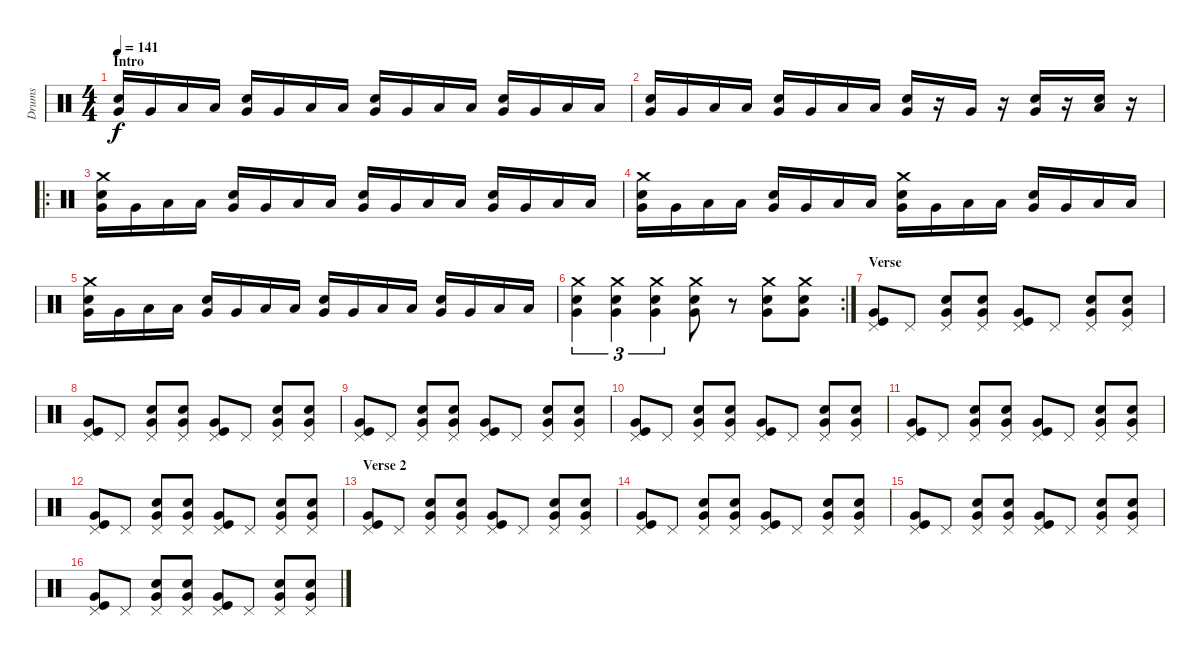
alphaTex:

\track ("Drums" "Drums") {instrument percussion}
\staff {score}
\articulation defaults
\ts (4 4)
\section ("" "Intro")
\tempo 141
\clef neutral
\ks c
("Snare (hit) 2" "Very Low Tom (hit)").16{dy f} "Very Low Tom (hit)".16 "Low Floor Tom (hit)".16 "Low Floor Tom (hit)".16 ("Snare (hit) 2" "Very Low Tom (hit)").16 "Very Low Tom (hit)".16 "Low Floor Tom (hit)".16 "Low Floor Tom (hit)".16 ("Snare (hit) 2" "Very Low Tom (hit)").16 "Very Low Tom (hit)".16 "Low Floor Tom (hit)".16 "Low Floor Tom (hit)".16 ("Snare (hit) 2" "Very Low Tom (hit)").16 "Very Low Tom (hit)".16 "Low Floor Tom (hit)".16 "Low Floor Tom (hit)".16 |
("Snare (hit) 2" "Very Low Tom (hit)").16 "Very Low Tom (hit)".16 "Low Floor Tom (hit)".16 "Low Floor Tom (hit)".16 ("Snare (hit) 2" "Very Low Tom (hit)").16 "Very Low Tom (hit)".16 "Low Floor Tom (hit)".16 "Low Floor Tom (hit)".16 ("Snare (hit) 2" "Very Low Tom (hit)").16 r.16 "Very Low Tom (hit)".16 r.16 ("Snare (hit) 2" "Very Low Tom (hit)").16 r.16 ("Snare (hit) 2" "Low Floor Tom (hit)").16 r.16 |
\ro
("Crash medium (hit)" "Snare (hit) 2" "Very Low Tom (hit)").16 "Very Low Tom (hit)".16 "Low Floor Tom (hit)".16 "Low Floor Tom (hit)".16 ("Snare (hit) 2" "Very Low Tom (hit)").16 "Very Low Tom (hit)".16 "Low Floor Tom (hit)".16 "Low Floor Tom (hit)".16 ("Snare (hit) 2" "Very Low Tom (hit)").16 "Very Low Tom (hit)".16 "Low Floor Tom (hit)".16 "Low Floor Tom (hit)".16 ("Snare (hit) 2" "Very Low Tom (hit)").16 "Very Low Tom (hit)".16 "Low Floor Tom (hit)".16 "Low Floor Tom (hit)".16 |
("Crash medium (hit)" "Snare (hit) 2" "Very Low Tom (hit)").16 "Very Low Tom (hit)".16 "Low Floor Tom (hit)".16 "Low Floor Tom (hit)".16 ("Snare (hit) 2" "Very Low Tom (hit)").16 "Very Low Tom (hit)".16 "Low Floor Tom (hit)".16 "Low Floor Tom (hit)".16 ("Crash medium (hit)" "Snare (hit) 2" "Very Low Tom (hit)").16 "Very Low Tom (hit)".16 "Low Floor Tom (hit)".16 "Low Floor Tom (hit)".16 ("Snare (hit) 2" "Very Low Tom (hit)").16 "Very Low Tom (hit)".16 "Low Floor Tom (hit)".16 "Low Floor Tom (hit)".16 |
("Crash medium (hit)" "Snare (hit) 2" "Very Low Tom (hit)").16 "Very Low Tom (hit)".16 "Low Floor Tom (hit)".16 "Low Floor Tom (hit)".16 ("Snare (hit) 2" "Very Low Tom (hit)").16 "Very Low Tom (hit)".16 "Low Floor Tom (hit)".16 "Low Floor Tom (hit)".16 ("Snare (hit) 2" "Very Low Tom (hit)").16 "Very Low Tom (hit)".16 "Low Floor Tom (hit)".16 "Low Floor Tom (hit)".16 ("Snare (hit) 2" "Very Low Tom (hit)").16 "Very Low Tom (hit)".16 "Low Floor Tom (hit)".16 "Low Floor Tom (hit)".16 |
\rc 2
("Crash medium (hit)" "Snare (hit) 2" "Very Low Tom (hit)").4{tu (3 2)} ("Crash medium (hit)" "Snare (hit) 2" "Very Low Tom (hit)").4{tu (3 2)} ("Crash medium (hit)" "Snare (hit) 2" "Very Low Tom (hit)").4{tu (3 2)} ("Crash medium (hit)" "Snare (hit) 2" "Very Low Tom (hit)").8 r.8 ("Crash medium (hit)" "Snare (hit) 2" "Very Low Tom (hit)").8 ("Crash medium (hit)" "Snare (hit) 2" "Very Low Tom (hit)").8 |
\section ("" "Verse")
("Pedal Hi-Hat (hit)" "Very Low Tom (hit)" "Kick (hit)").8 "Pedal Hi-Hat (hit)".8 ("Pedal Hi-Hat (hit)" "Very Low Tom (hit)" "Snare (hit) 2").8 ("Pedal Hi-Hat (hit)" "Very Low Tom (hit)" "Snare (hit) 2").8 ("Pedal Hi-Hat (hit)" "Very Low Tom (hit)" "Kick (hit)").8 "Pedal Hi-Hat (hit)".8 ("Pedal Hi-Hat (hit)" "Very Low Tom (hit)" "Snare (hit) 2").8 ("Pedal Hi-Hat (hit)" "Very Low Tom (hit)" "Snare (hit) 2").8 |
("Pedal Hi-Hat (hit)" "Very Low Tom (hit)" "Kick (hit)").8 "Pedal Hi-Hat (hit)".8 ("Pedal Hi-Hat (hit)" "Very Low Tom (hit)" "Snare (hit) 2").8 ("Pedal Hi-Hat (hit)" "Very Low Tom (hit)" "Snare (hit) 2").8 ("Pedal Hi-Hat (hit)" "Very Low Tom (hit)" "Kick (hit)").8 "Pedal Hi-Hat (hit)".8 ("Pedal Hi-Hat (hit)" "Very Low Tom (hit)" "Snare (hit) 2").8 ("Pedal Hi-Hat (hit)" "Very Low Tom (hit)" "Snare (hit) 2").8 |
("Pedal Hi-Hat (hit)" "Very Low Tom (hit)" "Kick (hit)").8 "Pedal Hi-Hat (hit)".8 ("Pedal Hi-Hat (hit)" "Very Low Tom (hit)" "Snare (hit) 2").8 ("Pedal Hi-Hat (hit)" "Very Low Tom (hit)" "Snare (hit) 2").8 ("Pedal Hi-Hat (hit)" "Very Low Tom (hit)" "Kick (hit)").8 "Pedal Hi-Hat (hit)".8 ("Pedal Hi-Hat (hit)" "Very Low Tom (hit)" "Snare (hit) 2").8 ("Pedal Hi-Hat (hit)" "Very Low Tom (hit)" "Snare (hit) 2").8 |
("Pedal Hi-Hat (hit)" "Very Low Tom (hit)" "Kick (hit)").8 "Pedal Hi-Hat (hit)".8 ("Pedal Hi-Hat (hit)" "Very Low Tom (hit)" "Snare (hit) 2").8 ("Pedal Hi-Hat (hit)" "Very Low Tom (hit)" "Snare (hit) 2").8 ("Pedal Hi-Hat (hit)" "Very Low Tom (hit)" "Kick (hit)").8 "Pedal Hi-Hat (hit)".8 ("Pedal Hi-Hat (hit)" "Very Low Tom (hit)" "Snare (hit) 2").8 ("Pedal Hi-Hat (hit)" "Very Low Tom (hit)" "Snare (hit) 2").8 |
("Pedal Hi-Hat (hit)" "Very Low Tom (hit)" "Kick (hit)").8 "Pedal Hi-Hat (hit)".8 ("Pedal Hi-Hat (hit)" "Very Low Tom (hit)" "Snare (hit) 2").8 ("Pedal Hi-Hat (hit)" "Very Low Tom (hit)" "Snare (hit) 2").8 ("Pedal Hi-Hat (hit)" "Very Low Tom (hit)" "Kick (hit)").8 "Pedal Hi-Hat (hit)".8 ("Pedal Hi-Hat (hit)" "Very Low Tom (hit)" "Snare (hit) 2").8 ("Pedal Hi-Hat (hit)" "Very Low Tom (hit)" "Snare (hit) 2").8 |
("Pedal Hi-Hat (hit)" "Very Low Tom (hit)" "Kick (hit)").8 "Pedal Hi-Hat (hit)".8 ("Pedal Hi-Hat (hit)" "Very Low Tom (hit)" "Snare (hit) 2").8 ("Pedal Hi-Hat (hit)" "Very Low Tom (hit)" "Snare (hit) 2").8 ("Pedal Hi-Hat (hit)" "Very Low Tom (hit)" "Kick (hit)").8 "Pedal Hi-Hat (hit)".8 ("Pedal Hi-Hat (hit)" "Very Low Tom (hit)" "Snare (hit) 2").8 ("Pedal Hi-Hat (hit)" "Very Low Tom (hit)" "Snare (hit) 2").8 |
\section ("" "Verse 2")
("Pedal Hi-Hat (hit)" "Very Low Tom (hit)" "Kick (hit)").8 "Pedal Hi-Hat (hit)".8 ("Pedal Hi-Hat (hit)" "Very Low Tom (hit)" "Snare (hit) 2").8 ("Pedal Hi-Hat (hit)" "Very Low Tom (hit)" "Snare (hit) 2").8 ("Pedal Hi-Hat (hit)" "Very Low Tom (hit)" "Kick (hit)").8 "Pedal Hi-Hat (hit)".8 ("Pedal Hi-Hat (hit)" "Very Low Tom (hit)" "Snare (hit) 2").8 ("Pedal Hi-Hat (hit)" "Very Low Tom (hit)" "Snare (hit) 2").8 |
("Pedal Hi-Hat (hit)" "Very Low Tom (hit)" "Kick (hit)").8 "Pedal Hi-Hat (hit)".8 ("Pedal Hi-Hat (hit)" "Very Low Tom (hit)" "Snare (hit) 2").8 ("Pedal Hi-Hat (hit)" "Very Low Tom (hit)" "Snare (hit) 2").8 ("Pedal Hi-Hat (hit)" "Very Low Tom (hit)" "Kick (hit)").8 "Pedal Hi-Hat (hit)".8 ("Pedal Hi-Hat (hit)" "Very Low Tom (hit)" "Snare (hit) 2").8 ("Pedal Hi-Hat (hit)" "Very Low Tom (hit)" "Snare (hit) 2").8 |
("Pedal Hi-Hat (hit)" "Very Low Tom (hit)" "Kick (hit)").8 "Pedal Hi-Hat (hit)".8 ("Pedal Hi-Hat (hit)" "Very Low Tom (hit)" "Snare (hit) 2").8 ("Pedal Hi-Hat (hit)" "Very Low Tom (hit)" "Snare (hit) 2").8 ("Pedal Hi-Hat (hit)" "Very Low Tom (hit)" "Kick (hit)").8 "Pedal Hi-Hat (hit)".8 ("Pedal Hi-Hat (hit)" "Very Low Tom (hit)" "Snare (hit) 2").8 ("Pedal Hi-Hat (hit)" "Very Low Tom (hit)" "Snare (hit) 2").8 |
("Pedal Hi-Hat (hit)" "Very Low Tom (hit)" "Kick (hit)").8 "Pedal Hi-Hat (hit)".8 ("Pedal Hi-Hat (hit)" "Very Low Tom (hit)" "Snare (hit) 2").8 ("Pedal Hi-Hat (hit)" "Very Low Tom (hit)" "Snare (hit) 2").8 ("Pedal Hi-Hat (hit)" "Very Low Tom (hit)" "Kick (hit)").8 "Pedal Hi-Hat (hit)".8 ("Pedal Hi-Hat (hit)" "Very Low Tom (hit)" "Snare (hit) 2").8 ("Pedal Hi-Hat (hit)" "Very Low Tom (hit)" "Snare (hit) 2").8
